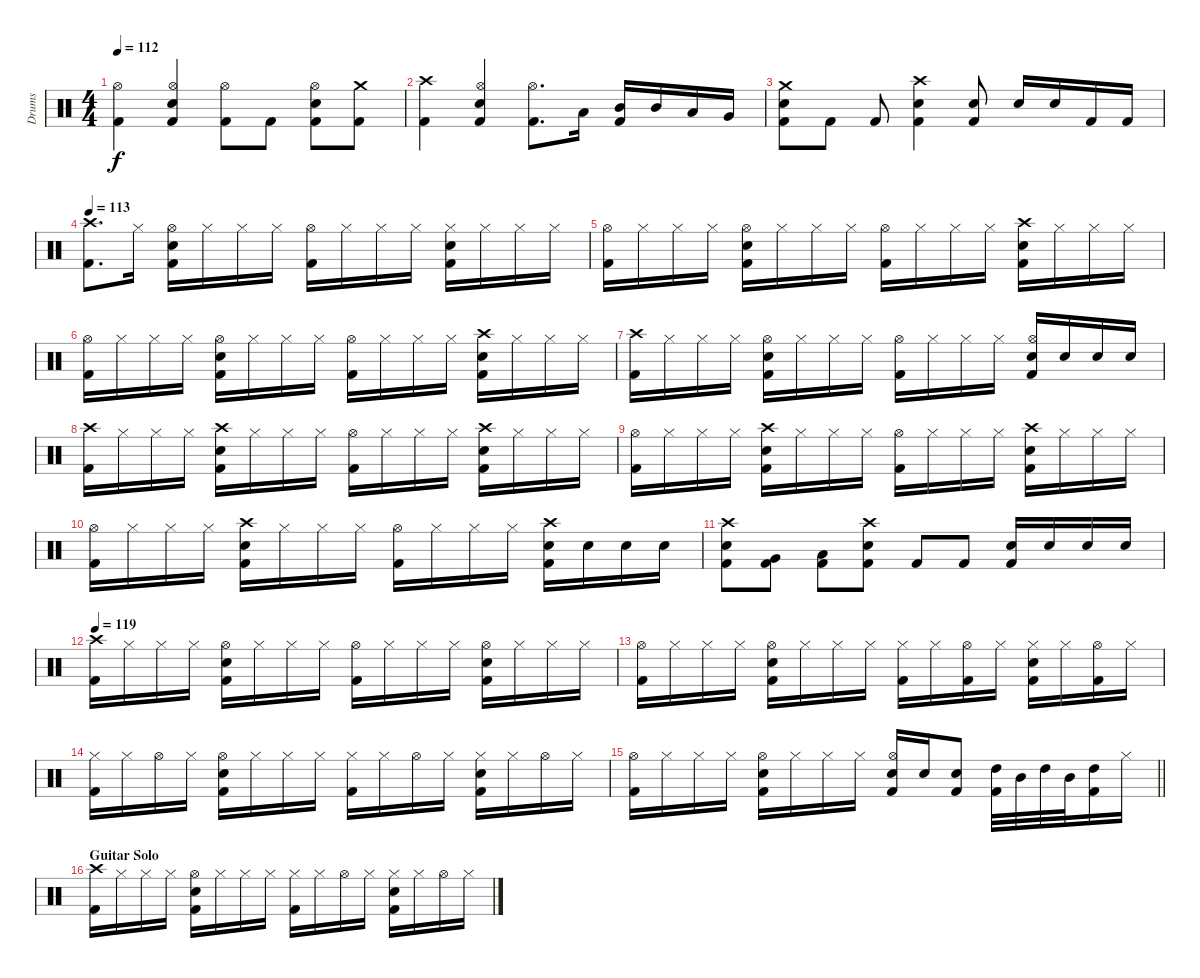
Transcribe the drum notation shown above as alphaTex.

\track ("Drums" "Drums") {instrument percussion}
\staff {score}
\articulation defaults
\ts (4 4)
\tempo 112
\clef neutral
\ks c
("Kick (hit) 2" "Hi-Hat (open)").4{dy f} ("Snare (hit) 2" "Kick (hit) 2" "Hi-Hat (open)").4 ("Kick (hit) 2" "Hi-Hat (open)").8 "Kick (hit) 2".8 ("Kick (hit) 2" "Hi-Hat (open)" "Snare (hit) 2").8 ("Crash medium (hit)" "Kick (hit) 2").8 |
("Kick (hit) 2" "Crash high (hit)").4 ("Snare (hit) 2" "Hi-Hat (open)" "Kick (hit) 2").4 ("Hi-Hat (open)" "Kick (hit) 2").8{d} "Low Tom (hit)".16 ("Kick (hit) 2" "Mid Tom (hit)").16 "Mid Tom (hit)".16 "Low Tom (hit)".16 "Very Low Tom (hit)".16 |
("Snare (hit) 2" "Crash medium (hit)" "Kick (hit) 2").8 "Kick (hit) 2".8 "Kick (hit) 2".8 ("Snare (hit) 2" "Kick (hit) 2" "Crash high (hit)").4 ("Snare (hit) 2" "Kick (hit) 2").8 "Snare (hit) 2".16 "Snare (hit) 2".16 "Kick (hit) 2".16 "Kick (hit) 2".16 |
\tempo 113
("Kick (hit) 2" "Crash high (hit)").8{d} "Hi-Hat (closed)".16 ("Snare (hit) 2" "Kick (hit) 2" "Hi-Hat (open)").16 "Hi-Hat (closed)".16 "Hi-Hat (closed)".16 "Hi-Hat (closed)".16 ("Hi-Hat (open)" "Kick (hit) 2").16 "Hi-Hat (closed)".16 "Hi-Hat (closed)".16 "Hi-Hat (closed)".16 ("Hi-Hat (closed)" "Snare (hit) 2" "Kick (hit) 2").16 "Hi-Hat (closed)".16 "Hi-Hat (closed)".16 "Hi-Hat (closed)".16 |
("Hi-Hat (open)" "Kick (hit) 2").16 "Hi-Hat (closed)".16 "Hi-Hat (closed)".16 "Hi-Hat (closed)".16 ("Snare (hit) 2" "Kick (hit) 2" "Hi-Hat (open)").16 "Hi-Hat (closed)".16 "Hi-Hat (closed)".16 "Hi-Hat (closed)".16 ("Hi-Hat (open)" "Kick (hit) 2").16 "Hi-Hat (closed)".16 "Hi-Hat (closed)".16 "Hi-Hat (closed)".16 ("Snare (hit) 2" "Crash high (hit)" "Kick (hit) 2").16 "Hi-Hat (closed)".16 "Hi-Hat (closed)".16 "Hi-Hat (closed)".16 |
("Hi-Hat (open)" "Kick (hit) 2").16 "Hi-Hat (closed)".16 "Hi-Hat (closed)".16 "Hi-Hat (closed)".16 ("Snare (hit) 2" "Kick (hit) 2" "Hi-Hat (open)").16 "Hi-Hat (closed)".16 "Hi-Hat (closed)".16 "Hi-Hat (closed)".16 ("Hi-Hat (open)" "Kick (hit) 2").16 "Hi-Hat (closed)".16 "Hi-Hat (closed)".16 "Hi-Hat (closed)".16 ("Snare (hit) 2" "Crash high (hit)" "Kick (hit) 2").16 "Hi-Hat (closed)".16 "Hi-Hat (closed)".16 "Hi-Hat (closed)".16 |
("Crash high (hit)" "Kick (hit) 2").16 "Hi-Hat (closed)".16 "Hi-Hat (closed)".16 "Hi-Hat (closed)".16 ("Snare (hit) 2" "Kick (hit) 2" "Hi-Hat (open)").16 "Hi-Hat (closed)".16 "Hi-Hat (closed)".16 "Hi-Hat (closed)".16 ("Hi-Hat (open)" "Kick (hit) 2").16 "Hi-Hat (closed)".16 "Hi-Hat (closed)".16 "Hi-Hat (closed)".16 ("Snare (hit) 2" "Hi-Hat (open)" "Kick (hit) 2").16 "Snare (hit) 2".16 "Snare (hit) 2".16 "Snare (hit) 2".16 |
("Crash high (hit)" "Kick (hit) 2").16 "Hi-Hat (closed)".16 "Hi-Hat (closed)".16 "Hi-Hat (closed)".16 ("Snare (hit) 2" "Kick (hit) 2" "Crash high (hit)").16 "Hi-Hat (closed)".16 "Hi-Hat (closed)".16 "Hi-Hat (closed)".16 ("Hi-Hat (open)" "Kick (hit) 2").16 "Hi-Hat (closed)".16 "Hi-Hat (closed)".16 "Hi-Hat (closed)".16 ("Snare (hit) 2" "Crash high (hit)" "Kick (hit) 2").16 "Hi-Hat (closed)".16 "Hi-Hat (closed)".16 "Hi-Hat (closed)".16 |
("Hi-Hat (open)" "Kick (hit) 2").16 "Hi-Hat (closed)".16 "Hi-Hat (closed)".16 "Hi-Hat (closed)".16 ("Snare (hit) 2" "Kick (hit) 2" "Crash high (hit)").16 "Hi-Hat (closed)".16 "Hi-Hat (closed)".16 "Hi-Hat (closed)".16 ("Hi-Hat (open)" "Kick (hit) 2").16 "Hi-Hat (closed)".16 "Hi-Hat (closed)".16 "Hi-Hat (closed)".16 ("Snare (hit) 2" "Crash high (hit)" "Kick (hit) 2").16 "Hi-Hat (closed)".16 "Hi-Hat (closed)".16 "Hi-Hat (closed)".16 |
("Hi-Hat (open)" "Kick (hit) 2").16 "Hi-Hat (closed)".16 "Hi-Hat (closed)".16 "Hi-Hat (closed)".16 ("Snare (hit) 2" "Kick (hit) 2" "Crash high (hit)").16 "Hi-Hat (closed)".16 "Hi-Hat (closed)".16 "Hi-Hat (closed)".16 ("Hi-Hat (open)" "Kick (hit) 2").16 "Hi-Hat (closed)".16 "Hi-Hat (closed)".16 "Hi-Hat (closed)".16 ("Snare (hit) 2" "Crash high (hit)" "Kick (hit) 2").16 "Snare (hit) 2".16 "Snare (hit) 2".16 "Snare (hit) 2".16 |
("Snare (hit) 2" "Crash high (hit)" "Kick (hit) 2").8 ("Very Low Tom (hit)" "Kick (hit) 2").8 ("Kick (hit) 2" "Low Floor Tom (hit)").8 ("Snare (hit) 2" "Kick (hit) 2" "Crash high (hit)").8 "Kick (hit) 2".8 "Kick (hit) 2".8 ("Snare (hit) 2" "Kick (hit) 2").16 "Snare (hit) 2".16 "Snare (hit) 2".16 "Snare (hit) 2".16 |
\tempo 119
("Crash high (hit)" "Kick (hit) 2").16 "Hi-Hat (closed)".16 "Hi-Hat (closed)".16 "Hi-Hat (closed)".16 ("Hi-Hat (open)" "Snare (hit) 2" "Kick (hit) 2").16 "Hi-Hat (closed)".16 "Hi-Hat (closed)".16 "Hi-Hat (closed)".16 ("Hi-Hat (open)" "Kick (hit) 2").16 "Hi-Hat (closed)".16 "Hi-Hat (closed)".16 "Hi-Hat (closed)".16 ("Hi-Hat (open)" "Kick (hit) 2" "Snare (hit) 2").16 "Hi-Hat (closed)".16 "Hi-Hat (closed)".16 "Hi-Hat (closed)".16 |
("Hi-Hat (open)" "Kick (hit) 2").16 "Hi-Hat (closed)".16 "Hi-Hat (closed)".16 "Hi-Hat (closed)".16 ("Snare (hit) 2" "Hi-Hat (open)" "Kick (hit) 2").16 "Hi-Hat (closed)".16 "Hi-Hat (closed)".16 "Hi-Hat (closed)".16 ("Hi-Hat (closed)" "Kick (hit) 2").16 "Hi-Hat (closed)".16 ("Hi-Hat (open)" "Kick (hit) 2").16 "Hi-Hat (closed)".16 ("Snare (hit) 2" "Hi-Hat (closed)" "Kick (hit) 2").16 "Hi-Hat (closed)".16 ("Kick (hit) 2" "Hi-Hat (open)").16 "Hi-Hat (closed)".16 |
("Hi-Hat (closed)" "Kick (hit) 2").16 "Hi-Hat (closed)".16 "Hi-Hat (open)".16 "Hi-Hat (closed)".16 ("Hi-Hat (open)" "Snare (hit) 2" "Kick (hit) 2").16 "Hi-Hat (closed)".16 "Hi-Hat (closed)".16 "Hi-Hat (closed)".16 ("Hi-Hat (closed)" "Kick (hit) 2").16 "Hi-Hat (closed)".16 "Hi-Hat (open)".16 "Hi-Hat (closed)".16 ("Hi-Hat (closed)" "Kick (hit) 2" "Snare (hit) 2").16 "Hi-Hat (closed)".16 "Hi-Hat (open)".16 "Hi-Hat (closed)".16 |
\barLineRight lightlight
("Hi-Hat (open)" "Kick (hit) 2").16 "Hi-Hat (closed)".16 "Hi-Hat (closed)".16 "Hi-Hat (closed)".16 ("Snare (hit) 2" "Hi-Hat (open)" "Kick (hit) 2").16 "Hi-Hat (closed)".16 "Hi-Hat (closed)".16 "Hi-Hat (closed)".16 ("Hi-Hat (open)" "Kick (hit) 2" "Snare (hit) 2").16 "Snare (hit) 2".16 ("Kick (hit) 2" "Snare (hit) 2").8 ("High Tom (hit)" "Kick (hit) 2").32 "Mid Tom (hit)".32 "High Tom (hit)".32 "Mid Tom (hit)".32 ("Kick (hit) 2" "High Tom (hit)").16 "Hi-Hat (closed)".16 |
\section ("" "Guitar Solo")
("Crash high (hit)" "Kick (hit) 2").16 "Hi-Hat (closed)".16 "Hi-Hat (closed)".16 "Hi-Hat (closed)".16 ("Hi-Hat (open)" "Snare (hit) 2" "Kick (hit) 2").16 "Hi-Hat (closed)".16 "Hi-Hat (closed)".16 "Hi-Hat (closed)".16 ("Hi-Hat (closed)" "Kick (hit) 2").16 "Hi-Hat (closed)".16 "Hi-Hat (open)".16 "Hi-Hat (closed)".16 ("Hi-Hat (closed)" "Kick (hit) 2" "Snare (hit) 2").16 "Hi-Hat (closed)".16 "Hi-Hat (open)".16 "Hi-Hat (closed)".16
